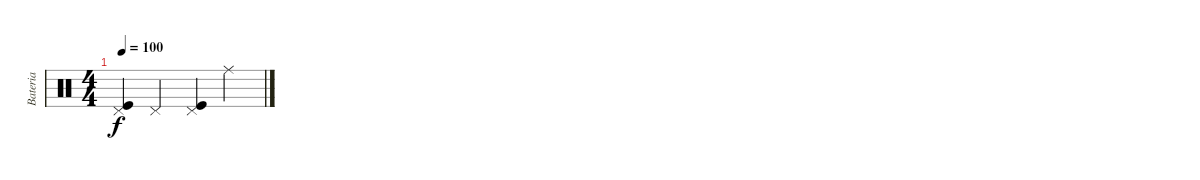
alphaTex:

\track ("Bateria" "Bateria") {instrument percussion}
\staff {score}
\articulation defaults
\ts (4 4)
\tempo 100
\clef neutral
\ks c
("Pedal Hi-Hat (hit)" "Kick (hit)").4{dy f} "Pedal Hi-Hat (hit)".4 ("Pedal Hi-Hat (hit)" "Kick (hit)").4 "Ride (middle)".4
